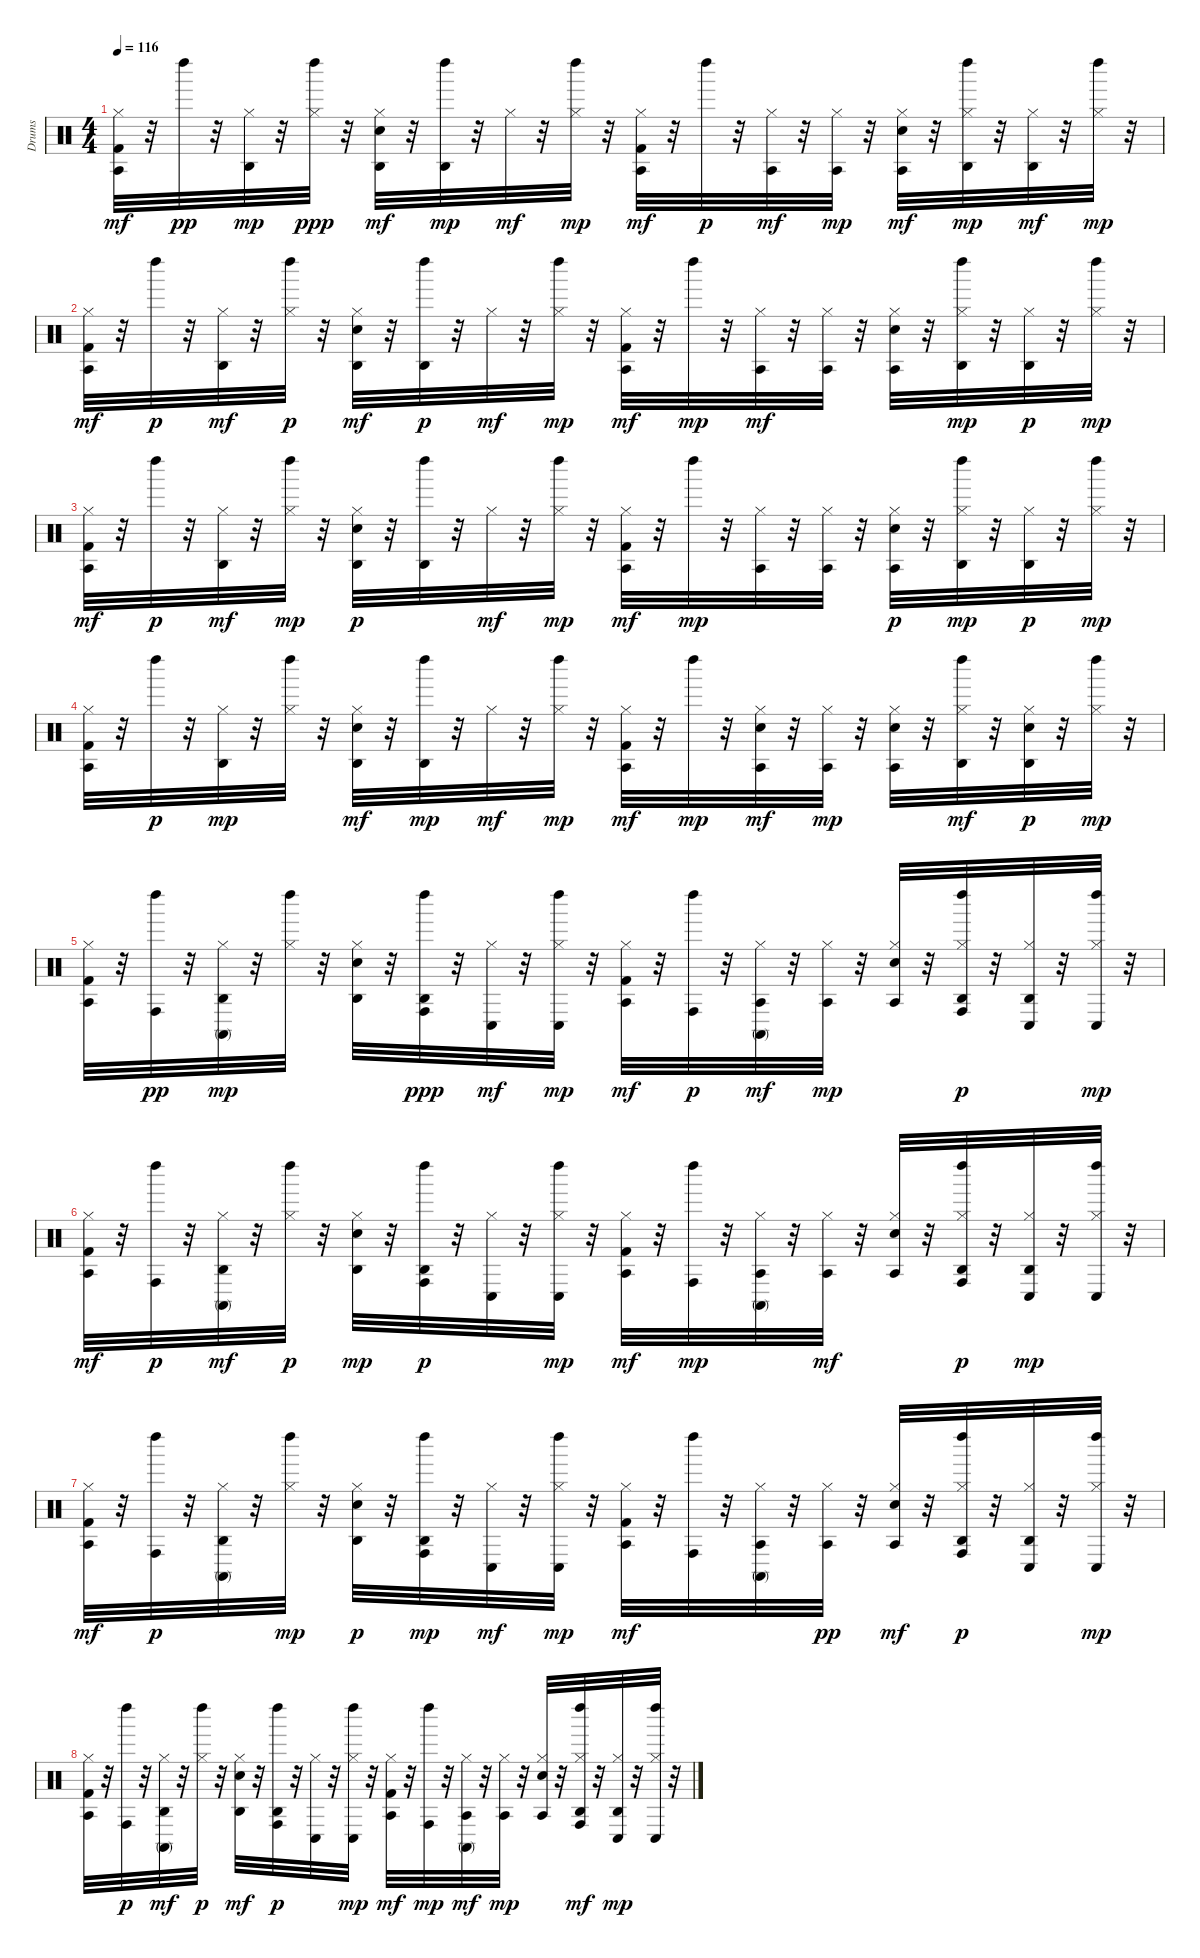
\track ("Drums" "Drums") {instrument percussion}
\staff {score}
\articulation defaults
\ts (4 4)
\tempo 116
\clef neutral
\ks c
("Kick (hit) 2" "Agogo tow (hit)" "Hi-Hat (closed)").32{dy mf} r.32 "Left Maraca (hit)".32{dy pp} r.32 ("Hi-Hat (closed)" "Agogo high (hit)").32{dy mp} r.32 ("Hi-Hat (closed)" "Left Maraca (hit)").32{dy ppp} r.32 ("Agogo high (hit)" "Snare (hit) 2" "Hi-Hat (closed)").32{dy mf} r.32 ("Left Maraca (hit)" "Agogo high (hit)").32{dy mp} r.32 "Hi-Hat (closed)".32{dy mf} r.32 ("Left Maraca (hit)" "Hi-Hat (closed)").32{dy mp} r.32 ("Hi-Hat (closed)" "Kick (hit) 2" "Agogo tow (hit)").32{dy mf} r.32 "Left Maraca (hit)".32{dy p} r.32 ("Agogo tow (hit)" "Hi-Hat (closed)").32{dy mf} r.32 ("Hi-Hat (closed)" "Agogo tow (hit)").32{dy mp} r.32 ("Agogo tow (hit)" "Hi-Hat (closed)" "Snare (hit) 2").32{dy mf} r.32 ("Agogo high (hit)" "Left Maraca (hit)" "Hi-Hat (closed)").32{dy mp} r.32 ("Agogo high (hit)" "Hi-Hat (closed)").32{dy mf} r.32 ("Left Maraca (hit)" "Hi-Hat (closed)").32{dy mp} r.32 |
("Kick (hit) 2" "Hi-Hat (closed)" "Agogo tow (hit)").32{dy mf} r.32 "Left Maraca (hit)".32{dy p} r.32 ("Agogo high (hit)" "Hi-Hat (closed)").32{dy mf} r.32 ("Hi-Hat (closed)" "Left Maraca (hit)").32{dy p} r.32 ("Snare (hit) 2" "Agogo high (hit)" "Hi-Hat (closed)").32{dy mf} r.32 ("Agogo high (hit)" "Left Maraca (hit)").32{dy p} r.32 "Hi-Hat (closed)".32{dy mf} r.32 ("Left Maraca (hit)" "Hi-Hat (closed)").32{dy mp} r.32 ("Agogo tow (hit)" "Hi-Hat (closed)" "Kick (hit) 2").32{dy mf} r.32 "Left Maraca (hit)".32{dy mp} r.32 ("Agogo tow (hit)" "Hi-Hat (closed)").32{dy mf} r.32 ("Hi-Hat (closed)" "Agogo tow (hit)").32 r.32 ("Agogo tow (hit)" "Snare (hit) 2" "Hi-Hat (closed)").32 r.32 ("Agogo high (hit)" "Left Maraca (hit)" "Hi-Hat (closed)").32{dy mp} r.32 ("Hi-Hat (closed)" "Agogo high (hit)").32{dy p} r.32 ("Hi-Hat (closed)" "Left Maraca (hit)").32{dy mp} r.32 |
("Kick (hit) 2" "Hi-Hat (closed)" "Agogo tow (hit)").32{dy mf} r.32 "Left Maraca (hit)".32{dy p} r.32 ("Agogo high (hit)" "Hi-Hat (closed)").32{dy mf} r.32 ("Left Maraca (hit)" "Hi-Hat (closed)").32{dy mp} r.32 ("Snare (hit) 2" "Hi-Hat (closed)" "Agogo high (hit)").32{dy p} r.32 ("Left Maraca (hit)" "Agogo high (hit)").32 r.32 "Hi-Hat (closed)".32{dy mf} r.32 ("Hi-Hat (closed)" "Left Maraca (hit)").32{dy mp} r.32 ("Kick (hit) 2" "Agogo tow (hit)" "Hi-Hat (closed)").32{dy mf} r.32 "Left Maraca (hit)".32{dy mp} r.32 ("Hi-Hat (closed)" "Agogo tow (hit)").32 r.32 ("Agogo tow (hit)" "Hi-Hat (closed)").32 r.32 ("Snare (hit) 2" "Hi-Hat (closed)" "Agogo tow (hit)").32{dy p} r.32 ("Left Maraca (hit)" "Agogo high (hit)" "Hi-Hat (closed)").32{dy mp} r.32 ("Hi-Hat (closed)" "Agogo high (hit)").32{dy p} r.32 ("Hi-Hat (closed)" "Left Maraca (hit)").32{dy mp} r.32 |
("Kick (hit) 2" "Hi-Hat (closed)" "Agogo tow (hit)").32 r.32 "Left Maraca (hit)".32{dy p} r.32 ("Hi-Hat (closed)" "Agogo high (hit)").32{dy mp} r.32 ("Left Maraca (hit)" "Hi-Hat (closed)").32 r.32 ("Hi-Hat (closed)" "Agogo high (hit)" "Snare (hit) 2").32{dy mf} r.32 ("Left Maraca (hit)" "Agogo high (hit)").32{dy mp} r.32 "Hi-Hat (closed)".32{dy mf} r.32 ("Hi-Hat (closed)" "Left Maraca (hit)").32{dy mp} r.32 ("Hi-Hat (closed)" "Agogo tow (hit)" "Kick (hit) 2").32{dy mf} r.32 "Left Maraca (hit)".32{dy mp} r.32 ("Hi-Hat (closed)" "Agogo tow (hit)" "Snare (hit) 2").32{dy mf} r.32 ("Agogo tow (hit)" "Hi-Hat (closed)").32{dy mp} r.32 ("Snare (hit) 2" "Hi-Hat (closed)" "Agogo tow (hit)").32 r.32 ("Hi-Hat (closed)" "Left Maraca (hit)" "Agogo high (hit)").32{dy mf} r.32 ("Hi-Hat (closed)" "Agogo high (hit)" "Snare (hit) 2").32{dy p} r.32 ("Left Maraca (hit)" "Hi-Hat (closed)").32{dy mp} r.32 |
("Hi-Hat (closed)" "Kick (hit) 2" "Agogo tow (hit)").32 r.32 ("Conga high (hit)" "Left Maraca (hit)").32{dy pp} r.32 ("Hi-Hat (closed)" "Conga high (mute)" "Agogo high (hit)").32{dy mp} r.32 ("Left Maraca (hit)" "Hi-Hat (closed)").32 r.32 ("Snare (hit) 2" "Hi-Hat (closed)" "Agogo high (hit)").32 r.32 ("Conga high (hit)" "Agogo high (hit)" "Left Maraca (hit)").32{dy ppp} r.32 ("Conga low (hit)" "Hi-Hat (closed)").32{dy mf} r.32 ("Left Maraca (hit)" "Conga low (hit)" "Hi-Hat (closed)").32{dy mp} r.32 ("Hi-Hat (closed)" "Kick (hit) 2" "Agogo tow (hit)").32{dy mf} r.32 ("Conga high (hit)" "Left Maraca (hit)").32{dy p} r.32 ("Conga high (mute)" "Hi-Hat (closed)" "Agogo tow (hit)").32{dy mf} r.32 ("Hi-Hat (closed)" "Agogo tow (hit)").32{dy mp} r.32 ("Snare (hit) 2" "Hi-Hat (closed)" "Agogo tow (hit)").32 r.32 ("Hi-Hat (closed)" "Conga high (hit)" "Agogo high (hit)" "Left Maraca (hit)").32{dy p} r.32 ("Hi-Hat (closed)" "Conga low (hit)" "Agogo high (hit)").32 r.32 ("Conga low (hit)" "Left Maraca (hit)" "Hi-Hat (closed)").32{dy mp} r.32 |
("Agogo tow (hit)" "Hi-Hat (closed)" "Kick (hit) 2").32{dy mf} r.32 ("Conga high (hit)" "Left Maraca (hit)").32{dy p} r.32 ("Agogo high (hit)" "Conga high (mute)" "Hi-Hat (closed)").32{dy mf} r.32 ("Hi-Hat (closed)" "Left Maraca (hit)").32{dy p} r.32 ("Snare (hit) 2" "Hi-Hat (closed)" "Agogo high (hit)").32{dy mp} r.32 ("Agogo high (hit)" "Conga high (hit)" "Left Maraca (hit)").32{dy p} r.32 ("Hi-Hat (closed)" "Conga low (hit)").32 r.32 ("Conga low (hit)" "Left Maraca (hit)" "Hi-Hat (closed)").32{dy mp} r.32 ("Kick (hit) 2" "Hi-Hat (closed)" "Agogo tow (hit)").32{dy mf} r.32 ("Conga high (hit)" "Left Maraca (hit)").32{dy mp} r.32 ("Agogo tow (hit)" "Hi-Hat (closed)" "Conga high (mute)").32 r.32 ("Hi-Hat (closed)" "Agogo tow (hit)").32{dy mf} r.32 ("Hi-Hat (closed)" "Snare (hit) 2" "Agogo tow (hit)").32 r.32 ("Hi-Hat (closed)" "Agogo high (hit)" "Left Maraca (hit)" "Conga high (hit)").32{dy p} r.32 ("Agogo high (hit)" "Hi-Hat (closed)" "Conga low (hit)").32{dy mp} r.32 ("Left Maraca (hit)" "Conga low (hit)" "Hi-Hat (closed)").32 r.32 |
("Kick (hit) 2" "Hi-Hat (closed)" "Agogo tow (hit)").32{dy mf} r.32 ("Conga high (hit)" "Left Maraca (hit)").32{dy p} r.32 ("Hi-Hat (closed)" "Agogo high (hit)" "Conga high (mute)").32 r.32 ("Left Maraca (hit)" "Hi-Hat (closed)").32{dy mp} r.32 ("Snare (hit) 2" "Hi-Hat (closed)" "Agogo high (hit)").32{dy p} r.32 ("Left Maraca (hit)" "Agogo high (hit)" "Conga high (hit)").32{dy mp} r.32 ("Conga low (hit)" "Hi-Hat (closed)").32{dy mf} r.32 ("Left Maraca (hit)" "Hi-Hat (closed)" "Conga low (hit)").32{dy mp} r.32 ("Kick (hit) 2" "Agogo tow (hit)" "Hi-Hat (closed)").32{dy mf} r.32 ("Left Maraca (hit)" "Conga high (hit)").32 r.32 ("Agogo tow (hit)" "Conga high (mute)" "Hi-Hat (closed)").32 r.32 ("Hi-Hat (closed)" "Agogo tow (hit)").32{dy pp} r.32 ("Agogo tow (hit)" "Hi-Hat (closed)" "Snare (hit) 2").32{dy mf} r.32 ("Hi-Hat (closed)" "Left Maraca (hit)" "Agogo high (hit)" "Conga high (hit)").32{dy p} r.32 ("Hi-Hat (closed)" "Conga low (hit)" "Agogo high (hit)").32 r.32 ("Hi-Hat (closed)" "Left Maraca (hit)" "Conga low (hit)").32{dy mp} r.32 |
("Hi-Hat (closed)" "Kick (hit) 2" "Agogo tow (hit)").32 r.32 ("Conga high (hit)" "Left Maraca (hit)").32{dy p} r.32 ("Agogo high (hit)" "Conga high (mute)" "Hi-Hat (closed)").32{dy mf} r.32 ("Hi-Hat (closed)" "Left Maraca (hit)").32{dy p} r.32 ("Snare (hit) 2" "Hi-Hat (closed)" "Agogo high (hit)").32{dy mf} r.32 ("Conga high (hit)" "Agogo high (hit)" "Left Maraca (hit)").32{dy p} r.32 ("Hi-Hat (closed)" "Conga low (hit)").32 r.32 ("Conga low (hit)" "Hi-Hat (closed)" "Left Maraca (hit)").32{dy mp} r.32 ("Kick (hit) 2" "Agogo tow (hit)" "Hi-Hat (closed)").32{dy mf} r.32 ("Left Maraca (hit)" "Conga high (hit)").32{dy mp} r.32 ("Agogo tow (hit)" "Conga high (mute)" "Hi-Hat (closed)").32{dy mf} r.32 ("Agogo tow (hit)" "Hi-Hat (closed)").32{dy mp} r.32 ("Hi-Hat (closed)" "Agogo tow (hit)" "Snare (hit) 2").32 r.32 ("Left Maraca (hit)" "Hi-Hat (closed)" "Conga high (hit)" "Agogo high (hit)").32{dy mf} r.32 ("Hi-Hat (closed)" "Agogo high (hit)" "Conga low (hit)").32{dy mp} r.32 ("Hi-Hat (closed)" "Conga low (hit)" "Left Maraca (hit)").32 r.32
